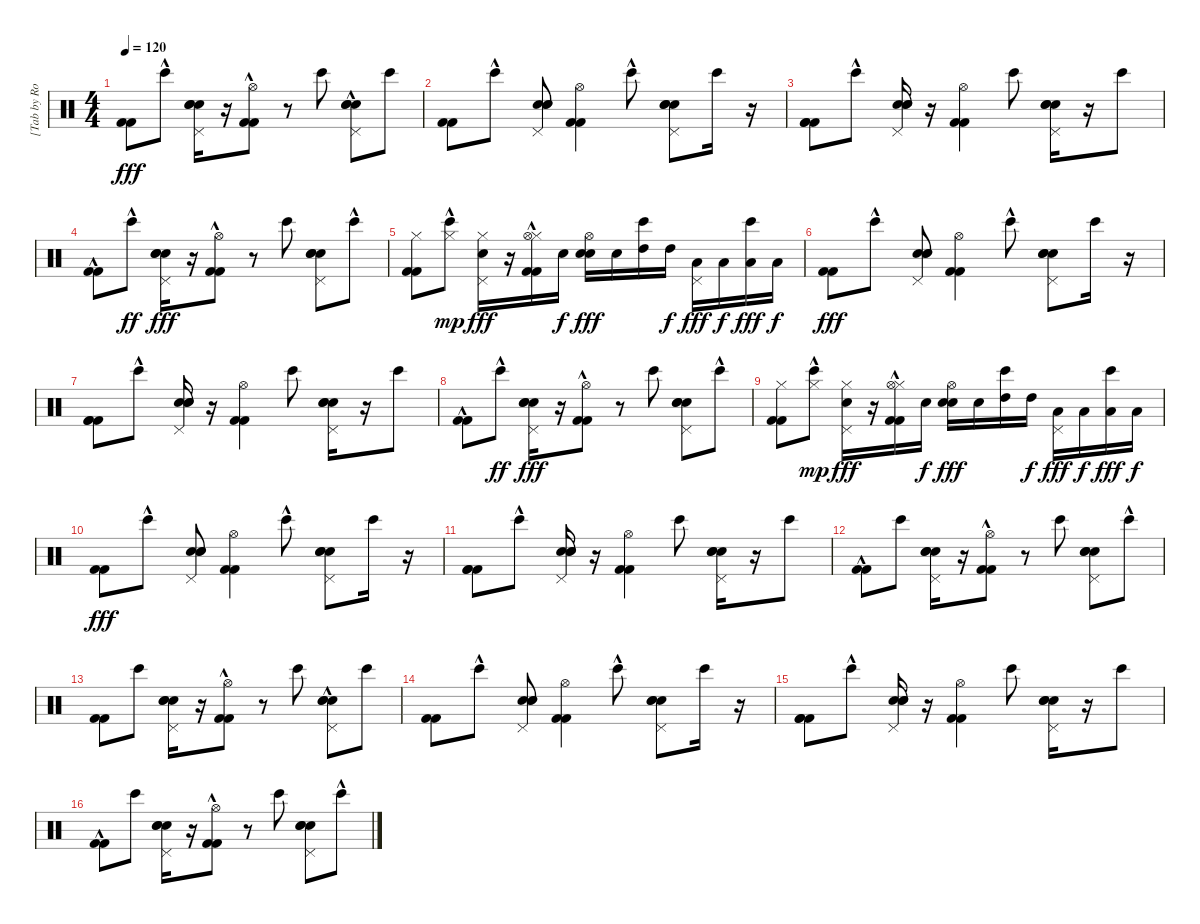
\track ("[Tab by Rodrigo Takahashi]" "[Tab by Ro") {instrument percussion}
\staff {score}
\articulation defaults
\ts (4 4)
\tempo 120
\clef neutral
\ks c
("Kick (hit) 2" "Kick (hit) 2").8{dy fff} "Bongo High (hit)"{hac}.8 ("Pedal Hi-Hat (hit)" "Electric Snare (hit)" "Snare (hit) 2" "Hand Clap (hit)").16 r.16 ("Kick (hit) 2"{hac} "Kick (hit) 2"{hac} "Hi-Hat (open)").8 r.8 "Bongo High (hit)".8 ("Snare (hit) 2" "Pedal Hi-Hat (hit)" "Electric Snare (hit)"{hac} "Hand Clap (hit)").8 "Bongo High (hit)".8 |
("Kick (hit) 2" "Kick (hit) 2").8 "Bongo High (hit)"{hac}.8 ("Hand Clap (hit)" "Pedal Hi-Hat (hit)" "Electric Snare (hit)" "Snare (hit) 2").8 ("Kick (hit) 2" "Kick (hit) 2" "Hi-Hat (open)").4 "Bongo High (hit)"{hac}.8 ("Pedal Hi-Hat (hit)" "Electric Snare (hit)" "Snare (hit) 2" "Hand Clap (hit)").8 "Bongo High (hit)".16 r.16 |
("Kick (hit) 2" "Kick (hit) 2" "Kick (hit) 2").8 "Bongo High (hit)"{hac}.8 ("Pedal Hi-Hat (hit)" "Electric Snare (hit)" "Snare (hit) 2" "Hand Clap (hit)").16 r.16 ("Kick (hit) 2" "Kick (hit) 2" "Hi-Hat (open)").4 "Bongo High (hit)".8 ("Pedal Hi-Hat (hit)" "Electric Snare (hit)" "Snare (hit) 2" "Hand Clap (hit)").16 r.16 "Bongo High (hit)".8 |
("Kick (hit) 2"{hac} "Kick (hit) 2"{hac}).8 "Bongo High (hit)"{hac}.8{dy ff} ("Pedal Hi-Hat (hit)" "Electric Snare (hit)" "Snare (hit) 2" "Hand Clap (hit)").16{dy fff} r.16 ("Kick (hit) 2"{hac} "Kick (hit) 2"{hac} "Hi-Hat (open)").8 r.8 "Bongo High (hit)".8 ("Snare (hit) 2" "Pedal Hi-Hat (hit)" "Electric Snare (hit)" "Hand Clap (hit)").8 "Bongo High (hit)"{hac}.8 |
("Hi-Hat (closed)" "Kick (hit) 2" "Kick (hit) 2").8 ("Bongo High (hit)"{hac} "Hi-Hat (closed)").8{dy mp} ("Hi-Hat (closed)" "Snare (hit) 2" "Pedal Hi-Hat (hit)").16{dy fff} r.16 ("Hi-Hat (closed)" "Kick (hit) 2"{hac} "Kick (hit) 2"{hac} "Hi-Hat (open)").16 "Snare (hit) 2".16{dy f} ("Snare (hit) 2" "Hi-Hat (open)" "Snare (hit) 2").16{dy fff} "Snare (hit) 2".16 ("High Tom (hit)" "Bongo High (hit)").16 "High Tom (hit)".16{dy f} ("Low Tom (hit)" "Pedal Hi-Hat (hit)").16{dy fff} "Low Tom (hit)".16{dy f} ("Low Floor Tom (hit)" "Bongo High (hit)").16{dy fff} "Low Floor Tom (hit)".16{dy f} |
("Kick (hit) 2" "Kick (hit) 2").8{dy fff} "Bongo High (hit)"{hac}.8 ("Hand Clap (hit)" "Pedal Hi-Hat (hit)" "Electric Snare (hit)" "Snare (hit) 2").8 ("Kick (hit) 2" "Kick (hit) 2" "Hi-Hat (open)").4 "Bongo High (hit)"{hac}.8 ("Pedal Hi-Hat (hit)" "Electric Snare (hit)" "Snare (hit) 2" "Hand Clap (hit)").8 "Bongo High (hit)".16 r.16 |
("Kick (hit) 2" "Kick (hit) 2" "Kick (hit) 2").8 "Bongo High (hit)"{hac}.8 ("Pedal Hi-Hat (hit)" "Electric Snare (hit)" "Snare (hit) 2" "Hand Clap (hit)").16 r.16 ("Kick (hit) 2" "Kick (hit) 2" "Hi-Hat (open)").4 "Bongo High (hit)".8 ("Pedal Hi-Hat (hit)" "Electric Snare (hit)" "Snare (hit) 2" "Hand Clap (hit)").16 r.16 "Bongo High (hit)".8 |
("Kick (hit) 2"{hac} "Kick (hit) 2"{hac}).8 "Bongo High (hit)"{hac}.8{dy ff} ("Pedal Hi-Hat (hit)" "Electric Snare (hit)" "Snare (hit) 2" "Hand Clap (hit)").16{dy fff} r.16 ("Kick (hit) 2"{hac} "Kick (hit) 2"{hac} "Hi-Hat (open)").8 r.8 "Bongo High (hit)".8 ("Snare (hit) 2" "Pedal Hi-Hat (hit)" "Electric Snare (hit)" "Hand Clap (hit)").8 "Bongo High (hit)"{hac}.8 |
("Hi-Hat (closed)" "Kick (hit) 2" "Kick (hit) 2").8 ("Bongo High (hit)"{hac} "Hi-Hat (closed)").8{dy mp} ("Hi-Hat (closed)" "Snare (hit) 2" "Pedal Hi-Hat (hit)").16{dy fff} r.16 ("Hi-Hat (closed)" "Kick (hit) 2"{hac} "Kick (hit) 2"{hac} "Hi-Hat (open)").16 "Snare (hit) 2".16{dy f} ("Snare (hit) 2" "Hi-Hat (open)" "Snare (hit) 2").16{dy fff} "Snare (hit) 2".16 ("High Tom (hit)" "Bongo High (hit)").16 "High Tom (hit)".16{dy f} ("Low Tom (hit)" "Pedal Hi-Hat (hit)").16{dy fff} "Low Tom (hit)".16{dy f} ("Low Floor Tom (hit)" "Bongo High (hit)").16{dy fff} "Low Floor Tom (hit)".16{dy f} |
("Kick (hit) 2" "Kick (hit) 2").8{dy fff} "Bongo High (hit)"{hac}.8 ("Hand Clap (hit)" "Pedal Hi-Hat (hit)" "Electric Snare (hit)" "Snare (hit) 2").8 ("Kick (hit) 2" "Kick (hit) 2" "Hi-Hat (open)").4 "Bongo High (hit)"{hac}.8 ("Pedal Hi-Hat (hit)" "Electric Snare (hit)" "Snare (hit) 2" "Hand Clap (hit)").8 "Bongo High (hit)".16 r.16 |
("Kick (hit) 2" "Kick (hit) 2" "Kick (hit) 2").8 "Bongo High (hit)"{hac}.8 ("Pedal Hi-Hat (hit)" "Electric Snare (hit)" "Snare (hit) 2" "Hand Clap (hit)").16 r.16 ("Kick (hit) 2" "Kick (hit) 2" "Hi-Hat (open)").4 "Bongo High (hit)".8 ("Pedal Hi-Hat (hit)" "Electric Snare (hit)" "Snare (hit) 2" "Hand Clap (hit)").16 r.16 "Bongo High (hit)".8 |
("Kick (hit) 2"{hac} "Kick (hit) 2"{hac}).8 "Bongo High (hit)".8 ("Pedal Hi-Hat (hit)" "Electric Snare (hit)" "Snare (hit) 2" "Hand Clap (hit)").16 r.16 ("Kick (hit) 2"{hac} "Kick (hit) 2"{hac} "Hi-Hat (open)").8 r.8 "Bongo High (hit)".8 ("Snare (hit) 2" "Pedal Hi-Hat (hit)" "Electric Snare (hit)" "Hand Clap (hit)").8 "Bongo High (hit)"{hac}.8 |
("Kick (hit) 2" "Kick (hit) 2").8 "Bongo High (hit)".8 ("Pedal Hi-Hat (hit)" "Electric Snare (hit)" "Snare (hit) 2" "Hand Clap (hit)").16 r.16 ("Kick (hit) 2"{hac} "Kick (hit) 2"{hac} "Hi-Hat (open)").8 r.8 "Bongo High (hit)".8 ("Snare (hit) 2" "Pedal Hi-Hat (hit)" "Electric Snare (hit)"{hac} "Hand Clap (hit)").8 "Bongo High (hit)".8 |
("Kick (hit) 2" "Kick (hit) 2").8 "Bongo High (hit)"{hac}.8 ("Hand Clap (hit)" "Pedal Hi-Hat (hit)" "Electric Snare (hit)" "Snare (hit) 2").8 ("Kick (hit) 2" "Kick (hit) 2" "Hi-Hat (open)").4 "Bongo High (hit)"{hac}.8 ("Pedal Hi-Hat (hit)" "Electric Snare (hit)" "Snare (hit) 2" "Hand Clap (hit)").8 "Bongo High (hit)".16 r.16 |
("Kick (hit) 2" "Kick (hit) 2" "Kick (hit) 2").8 "Bongo High (hit)"{hac}.8 ("Pedal Hi-Hat (hit)" "Electric Snare (hit)" "Snare (hit) 2" "Hand Clap (hit)").16 r.16 ("Kick (hit) 2" "Kick (hit) 2" "Hi-Hat (open)").4 "Bongo High (hit)".8 ("Pedal Hi-Hat (hit)" "Electric Snare (hit)" "Snare (hit) 2" "Hand Clap (hit)").16 r.16 "Bongo High (hit)".8 |
("Kick (hit) 2"{hac} "Kick (hit) 2"{hac}).8 "Bongo High (hit)".8 ("Pedal Hi-Hat (hit)" "Electric Snare (hit)" "Snare (hit) 2" "Hand Clap (hit)").16 r.16 ("Kick (hit) 2"{hac} "Kick (hit) 2"{hac} "Hi-Hat (open)").8 r.8 "Bongo High (hit)".8 ("Snare (hit) 2" "Pedal Hi-Hat (hit)" "Electric Snare (hit)" "Hand Clap (hit)").8 "Bongo High (hit)"{hac}.8
